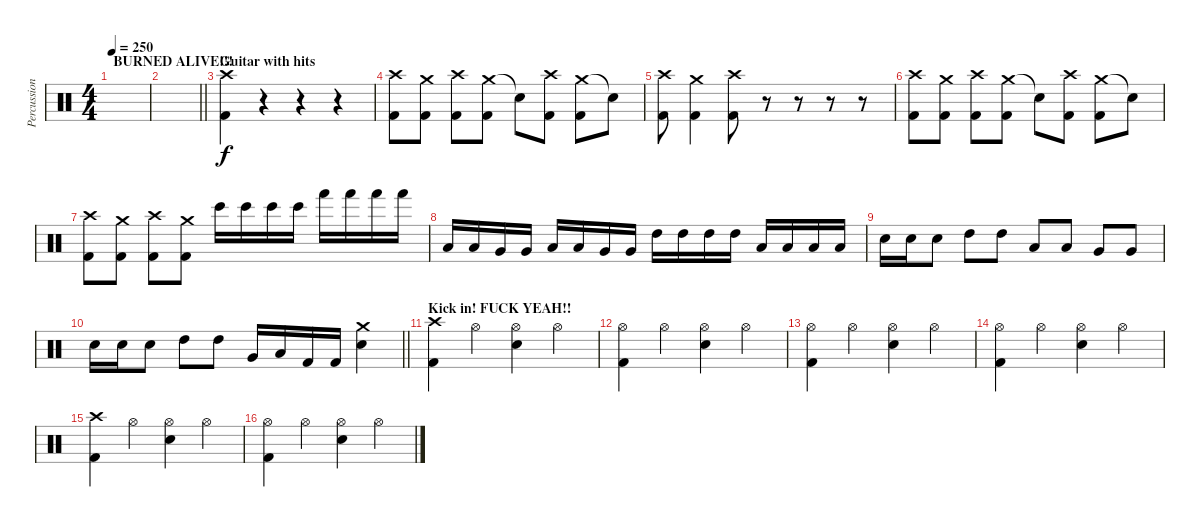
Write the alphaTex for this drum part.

\track ("Percussion" "Percussion") {instrument percussion}
\staff {score}
\articulation defaults
\ts (4 4)
\section ("" "BURNED ALIVE!!!")
\tempo 250
\clef neutral
\ks c
|
\barLineRight lightlight
|
\section ("" "Guitar with hits")
("Crash high (hit)" "Kick (hit) 2").4 r.4{volume 0} r.4 r.4 |
("Crash high (hit)" "Kick (hit) 2").8{volume 14} ("Crash medium (hit)" "Kick (hit) 2").8 ("Crash high (hit)" "Kick (hit) 2").8 ("Crash medium (hit)" "Kick (hit) 2").8 "Snare (hit)"{t}.8 ("Crash high (hit)" "Kick (hit) 2").8 ("Crash medium (hit)" "Kick (hit) 2").8 "Snare (hit)"{t}.8 |
("Crash high (hit)" "Kick (hit) 2").8 ("Crash medium (hit)" "Kick (hit) 2").4 ("Crash high (hit)" "Kick (hit) 2").8 r.8{volume 0} r.8 r.8 r.8 |
("Crash high (hit)" "Kick (hit) 2").8{volume 14} ("Crash medium (hit)" "Kick (hit) 2").8 ("Crash high (hit)" "Kick (hit) 2").8 ("Crash medium (hit)" "Kick (hit) 2").8 "Snare (hit)"{t}.8 ("Crash high (hit)" "Kick (hit) 2").8 ("Crash medium (hit)" "Kick (hit) 2").8 "Snare (hit)"{t}.8 |
("Crash high (hit)" "Kick (hit) 2").8 ("Crash medium (hit)" "Kick (hit) 2").8 ("Crash high (hit)" "Kick (hit) 2").8 ("Crash medium (hit)" "Kick (hit) 2").8 "Bongo High (hit)".16 "Bongo High (hit)".16 "Bongo High (hit)".16 "Bongo High (hit)".16 "Hand (hit)".16 "Hand (hit)".16 "Hand (hit)".16 "Hand (hit)".16 |
"Low Tom (hit)".16 "Low Tom (hit)".16 "Very Low Tom (hit)".16 "Very Low Tom (hit)".16 "Low Tom (hit)".16 "Low Tom (hit)".16 "Very Low Tom (hit)".16 "Very Low Tom (hit)".16 "High Tom (hit)".16 "High Tom (hit)".16 "High Tom (hit)".16 "High Tom (hit)".16 "Low Tom (hit)".16 "Low Tom (hit)".16 "Low Tom (hit)".16 "Low Tom (hit)".16 |
"Electric Snare (hit)".16 "Electric Snare (hit)".16 "Electric Snare (hit)".8 "High Tom (hit)".8 "High Tom (hit)".8 "Low Tom (hit)".8 "Low Tom (hit)".8 "Very Low Tom (hit)".8 "Very Low Tom (hit)".8 |
\barLineRight lightlight "Electric Snare (hit)".16 "Electric Snare (hit)".16 "Electric Snare (hit)".8 "High Tom (hit)".8 "High Tom (hit)".8 "Very Low Tom (hit)".16 "Low Tom (hit)".16 "Kick (hit) 2".16 "Kick (hit) 2".16
("Crash medium (hit)" "Electric Snare (hit)").4 |
\section ("" "Kick in! FUCK YEAH!!")
("Crash high (hit)" "Kick (hit) 2").4 "Hi-Hat (open)".4 ("Hi-Hat (open)" "Electric Snare (hit)").4 "Hi-Hat (open)".4 |
("Hi-Hat (open)" "Kick (hit) 2").4 "Hi-Hat (open)".4 ("Hi-Hat (open)" "Electric Snare (hit)").4 "Hi-Hat (open)".4 |
("Hi-Hat (open)" "Kick (hit) 2").4 "Hi-Hat (open)".4 ("Hi-Hat (open)" "Electric Snare (hit)").4 "Hi-Hat (open)".4 |
("Hi-Hat (open)" "Kick (hit) 2").4 "Hi-Hat (open)".4 ("Hi-Hat (open)" "Electric Snare (hit)").4 "Hi-Hat (open)".4 |
("Crash high (hit)" "Kick (hit) 2").4 "Hi-Hat (open)".4 ("Hi-Hat (open)" "Electric Snare (hit)").4 "Hi-Hat (open)".4 |
("Hi-Hat (open)" "Kick (hit) 2").4 "Hi-Hat (open)".4 ("Hi-Hat (open)" "Electric Snare (hit)").4 "Hi-Hat (open)".4
